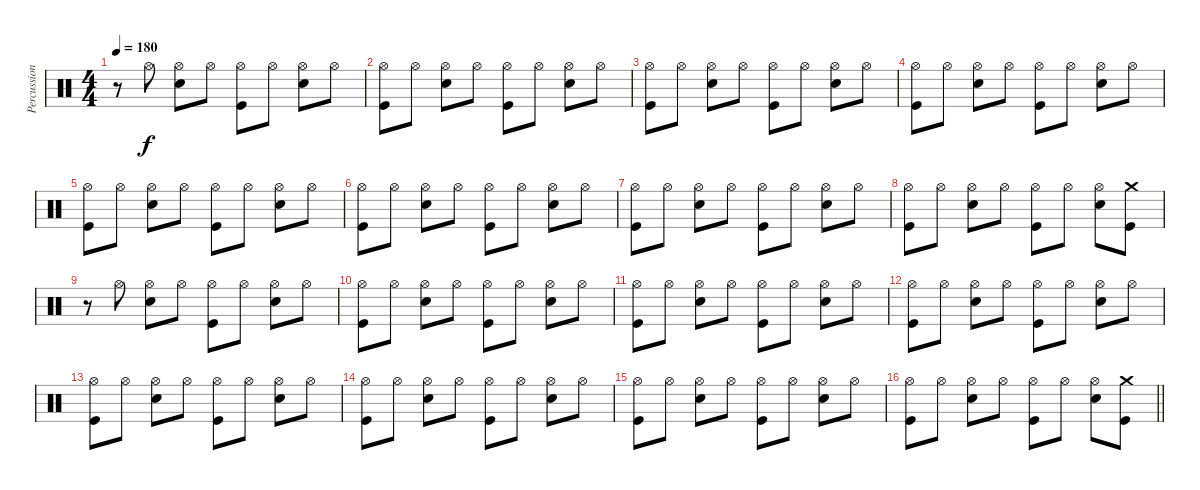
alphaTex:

\track ("Percussion" "Percussion") {instrument percussion}
\staff {score}
\articulation defaults
\ts (4 4)
\tempo 180
\clef neutral
\ks c
r.8{dy f} "Hi-Hat (open)".8 ("Hi-Hat (open)" "Snare (hit) 2").8 "Hi-Hat (open)".8 ("Hi-Hat (open)" "Kick (hit)").8 "Hi-Hat (open)".8 ("Hi-Hat (open)" "Snare (hit) 2").8 "Hi-Hat (open)".8 |
("Hi-Hat (open)" "Kick (hit)").8 "Hi-Hat (open)".8 ("Hi-Hat (open)" "Snare (hit) 2").8 "Hi-Hat (open)".8 ("Hi-Hat (open)" "Kick (hit)").8 "Hi-Hat (open)".8 ("Hi-Hat (open)" "Snare (hit) 2").8 "Hi-Hat (open)".8 |
("Hi-Hat (open)" "Kick (hit)").8 "Hi-Hat (open)".8 ("Hi-Hat (open)" "Snare (hit) 2").8 "Hi-Hat (open)".8 ("Hi-Hat (open)" "Kick (hit)").8 "Hi-Hat (open)".8 ("Hi-Hat (open)" "Snare (hit) 2").8 "Hi-Hat (open)".8 |
("Hi-Hat (open)" "Kick (hit)").8 "Hi-Hat (open)".8 ("Hi-Hat (open)" "Snare (hit) 2").8 "Hi-Hat (open)".8 ("Hi-Hat (open)" "Kick (hit)").8 "Hi-Hat (open)".8 ("Hi-Hat (open)" "Snare (hit) 2").8 "Hi-Hat (open)".8 |
("Hi-Hat (open)" "Kick (hit)").8 "Hi-Hat (open)".8 ("Hi-Hat (open)" "Snare (hit) 2").8 "Hi-Hat (open)".8 ("Hi-Hat (open)" "Kick (hit)").8 "Hi-Hat (open)".8 ("Hi-Hat (open)" "Snare (hit) 2").8 "Hi-Hat (open)".8 |
("Hi-Hat (open)" "Kick (hit)").8 "Hi-Hat (open)".8 ("Hi-Hat (open)" "Snare (hit) 2").8 "Hi-Hat (open)".8 ("Hi-Hat (open)" "Kick (hit)").8 "Hi-Hat (open)".8 ("Hi-Hat (open)" "Snare (hit) 2").8 "Hi-Hat (open)".8 |
("Hi-Hat (open)" "Kick (hit)").8 "Hi-Hat (open)".8 ("Hi-Hat (open)" "Snare (hit) 2").8 "Hi-Hat (open)".8 ("Hi-Hat (open)" "Kick (hit)").8 "Hi-Hat (open)".8 ("Hi-Hat (open)" "Snare (hit) 2").8 "Hi-Hat (open)".8 |
("Hi-Hat (open)" "Kick (hit)").8 "Hi-Hat (open)".8 ("Hi-Hat (open)" "Snare (hit) 2").8 "Hi-Hat (open)".8 ("Hi-Hat (open)" "Kick (hit)").8 "Hi-Hat (open)".8 ("Hi-Hat (open)" "Snare (hit) 2").8 ("Crash medium (hit)" "Kick (hit)").8 |
r.8 "Hi-Hat (open)".8 ("Hi-Hat (open)" "Snare (hit) 2").8 "Hi-Hat (open)".8 ("Hi-Hat (open)" "Kick (hit)").8 "Hi-Hat (open)".8 ("Hi-Hat (open)" "Snare (hit) 2").8 "Hi-Hat (open)".8 |
("Hi-Hat (open)" "Kick (hit)").8 "Hi-Hat (open)".8 ("Hi-Hat (open)" "Snare (hit) 2").8 "Hi-Hat (open)".8 ("Hi-Hat (open)" "Kick (hit)").8 "Hi-Hat (open)".8 ("Hi-Hat (open)" "Snare (hit) 2").8 "Hi-Hat (open)".8 |
("Hi-Hat (open)" "Kick (hit)").8 "Hi-Hat (open)".8 ("Hi-Hat (open)" "Snare (hit) 2").8 "Hi-Hat (open)".8 ("Hi-Hat (open)" "Kick (hit)").8 "Hi-Hat (open)".8 ("Hi-Hat (open)" "Snare (hit) 2").8 "Hi-Hat (open)".8 |
("Hi-Hat (open)" "Kick (hit)").8 "Hi-Hat (open)".8 ("Hi-Hat (open)" "Snare (hit) 2").8 "Hi-Hat (open)".8 ("Hi-Hat (open)" "Kick (hit)").8 "Hi-Hat (open)".8 ("Hi-Hat (open)" "Snare (hit) 2").8 "Hi-Hat (open)".8 |
("Hi-Hat (open)" "Kick (hit)").8 "Hi-Hat (open)".8 ("Hi-Hat (open)" "Snare (hit) 2").8 "Hi-Hat (open)".8 ("Hi-Hat (open)" "Kick (hit)").8 "Hi-Hat (open)".8 ("Hi-Hat (open)" "Snare (hit) 2").8 "Hi-Hat (open)".8 |
("Hi-Hat (open)" "Kick (hit)").8 "Hi-Hat (open)".8 ("Hi-Hat (open)" "Snare (hit) 2").8 "Hi-Hat (open)".8 ("Hi-Hat (open)" "Kick (hit)").8 "Hi-Hat (open)".8 ("Hi-Hat (open)" "Snare (hit) 2").8 "Hi-Hat (open)".8 |
("Hi-Hat (open)" "Kick (hit)").8 "Hi-Hat (open)".8 ("Hi-Hat (open)" "Snare (hit) 2").8 "Hi-Hat (open)".8 ("Hi-Hat (open)" "Kick (hit)").8 "Hi-Hat (open)".8 ("Hi-Hat (open)" "Snare (hit) 2").8 "Hi-Hat (open)".8 |
\barLineRight lightlight
("Hi-Hat (open)" "Kick (hit)").8 "Hi-Hat (open)".8 ("Hi-Hat (open)" "Snare (hit) 2").8 "Hi-Hat (open)".8 ("Hi-Hat (open)" "Kick (hit)").8 "Hi-Hat (open)".8 ("Hi-Hat (open)" "Snare (hit) 2").8 ("Crash medium (hit)" "Kick (hit)").8
